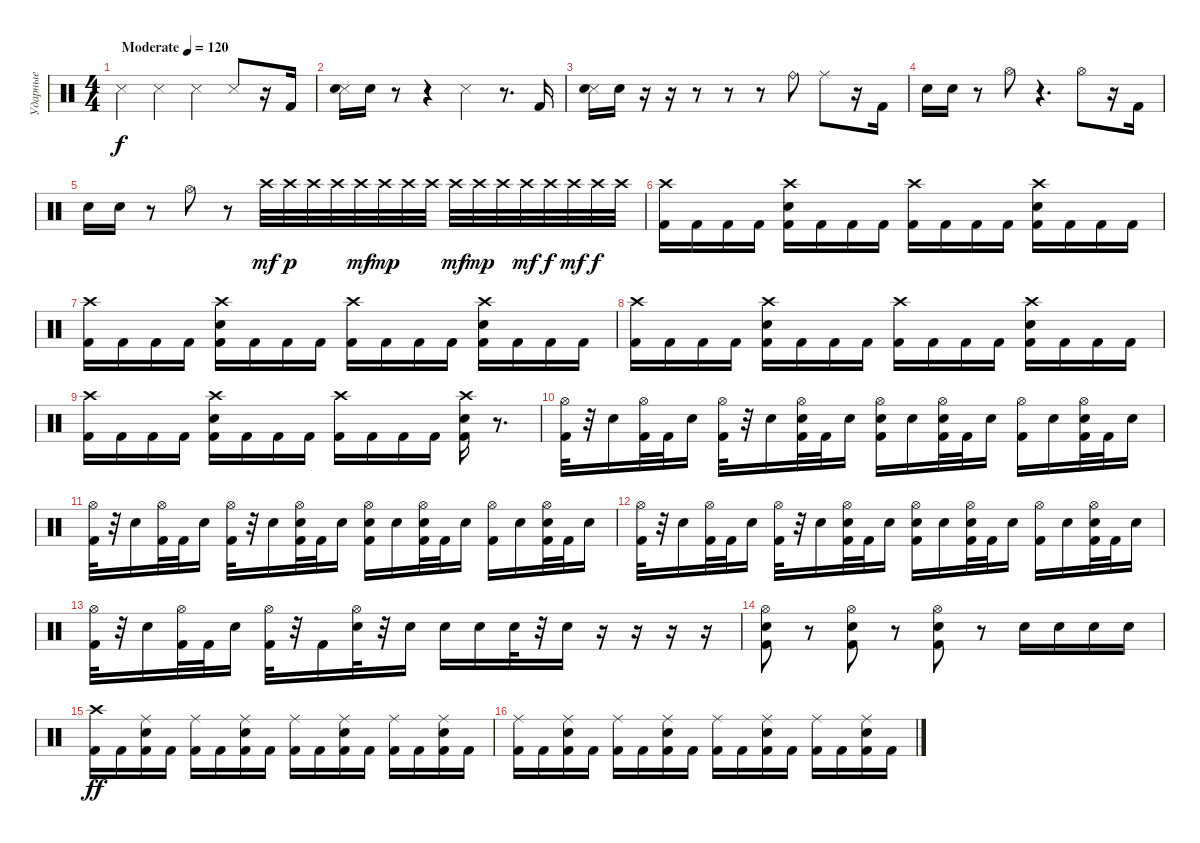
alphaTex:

\track ("Ударные" "Ударные") {instrument percussion}
\staff {score}
\articulation defaults
\ts (4 4)
\tempo (120 "Moderate")
\clef neutral
\ks c "Snare (side stick) 3".4{dy f} "Snare (side stick) 3".4 "Snare (side stick) 3".4 "Snare (side stick) 3".8
r.16 "Kick (hit) 2".16 |
("Snare (side stick) 3" "Electric Snare (hit)").16 "Electric Snare (hit)".16 r.8 r.4 "Snare (side stick) 3".4 r.8{d} "Kick (hit) 2".16 |
("Snare (side stick) 3" "Electric Snare (hit)").16 "Electric Snare (hit)".16 r.16 r.16 r.8 r.8 r.8 "Ride (bell)".8 "Ride (middle)".8 r.16 "Kick (hit) 2".16 |
"Electric Snare (hit)".16 "Electric Snare (hit)".16 r.8 "Hi-Hat (open)".8 r.4{d} "Hi-Hat (open)".8 r.16 "Kick (hit) 2".16 |
"Electric Snare (hit)".16 "Electric Snare (hit)".16 r.8 "Hi-Hat (open)".8 r.8 "Crash high (hit)".32{dy mf} "Crash high (hit)".32{dy p} "Crash high (hit)".32 "Crash high (hit)".32 "Crash high (hit)".32{dy mf} "Crash high (hit)".32{dy mp} "Crash high (hit)".32 "Crash high (hit)".32 "Crash high (hit)".32{dy mf} "Crash high (hit)".32{dy mp} "Crash high (hit)".32 "Crash high (hit)".32{dy mf} "Crash high (hit)".32{dy f} "Crash high (hit)".32{dy mf} "Crash high (hit)".32{dy f} "Crash high (hit)".32 |
("Crash high (hit)" "Kick (hit) 2").16 "Kick (hit) 2".16 "Kick (hit) 2".16 "Kick (hit) 2".16 ("Crash high (hit)" "Kick (hit) 2" "Electric Snare (hit)").16 "Kick (hit) 2".16 "Kick (hit) 2".16 "Kick (hit) 2".16 ("Crash high (hit)" "Kick (hit) 2").16 "Kick (hit) 2".16 "Kick (hit) 2".16 "Kick (hit) 2".16 ("Crash high (hit)" "Kick (hit) 2" "Electric Snare (hit)").16 "Kick (hit) 2".16 "Kick (hit) 2".16 "Kick (hit) 2".16 |
("Crash high (hit)" "Kick (hit) 2").16 "Kick (hit) 2".16 "Kick (hit) 2".16 "Kick (hit) 2".16 ("Crash high (hit)" "Kick (hit) 2" "Electric Snare (hit)").16 "Kick (hit) 2".16 "Kick (hit) 2".16 "Kick (hit) 2".16 ("Crash high (hit)" "Kick (hit) 2").16 "Kick (hit) 2".16 "Kick (hit) 2".16 "Kick (hit) 2".16 ("Crash high (hit)" "Kick (hit) 2" "Electric Snare (hit)").16 "Kick (hit) 2".16 "Kick (hit) 2".16 "Kick (hit) 2".16 |
("Crash high (hit)" "Kick (hit) 2").16 "Kick (hit) 2".16 "Kick (hit) 2".16 "Kick (hit) 2".16 ("Crash high (hit)" "Kick (hit) 2" "Electric Snare (hit)").16 "Kick (hit) 2".16 "Kick (hit) 2".16 "Kick (hit) 2".16 ("Crash high (hit)" "Kick (hit) 2").16 "Kick (hit) 2".16 "Kick (hit) 2".16 "Kick (hit) 2".16 ("Crash high (hit)" "Kick (hit) 2" "Electric Snare (hit)").16 "Kick (hit) 2".16 "Kick (hit) 2".16 "Kick (hit) 2".16 |
("Crash high (hit)" "Kick (hit) 2").16 "Kick (hit) 2".16 "Kick (hit) 2".16 "Kick (hit) 2".16 ("Crash high (hit)" "Kick (hit) 2" "Electric Snare (hit)").16 "Kick (hit) 2".16 "Kick (hit) 2".16 "Kick (hit) 2".16 ("Crash high (hit)" "Kick (hit) 2").16 "Kick (hit) 2".16 "Kick (hit) 2".16 "Kick (hit) 2".16 ("Crash high (hit)" "Kick (hit) 2" "Electric Snare (hit)").16 r.8{d} |
("Hi-Hat (open)" "Kick (hit) 2").32 r.32 "Electric Snare (hit)".16 ("Hi-Hat (open)" "Kick (hit) 2").32 "Kick (hit) 2".32 "Electric Snare (hit)".16 ("Hi-Hat (open)" "Kick (hit) 2").32 r.32 "Electric Snare (hit)".16 ("Hi-Hat (open)" "Kick (hit) 2" "Electric Snare (hit)").32 "Kick (hit) 2".32 "Electric Snare (hit)".16 ("Hi-Hat (open)" "Kick (hit) 2" "Electric Snare (hit)").16 "Electric Snare (hit)".16 ("Hi-Hat (open)" "Kick (hit) 2" "Electric Snare (hit)").32 "Kick (hit) 2".32 "Electric Snare (hit)".16 ("Hi-Hat (open)" "Kick (hit) 2").16 "Electric Snare (hit)".16 ("Hi-Hat (open)" "Kick (hit) 2" "Electric Snare (hit)").32 "Kick (hit) 2".32 "Electric Snare (hit)".16 |
("Hi-Hat (open)" "Kick (hit) 2").32 r.32 "Electric Snare (hit)".16 ("Hi-Hat (open)" "Kick (hit) 2").32 "Kick (hit) 2".32 "Electric Snare (hit)".16 ("Hi-Hat (open)" "Kick (hit) 2").32 r.32 "Electric Snare (hit)".16 ("Hi-Hat (open)" "Kick (hit) 2" "Electric Snare (hit)").32 "Kick (hit) 2".32 "Electric Snare (hit)".16 ("Hi-Hat (open)" "Kick (hit) 2" "Electric Snare (hit)").16 "Electric Snare (hit)".16 ("Hi-Hat (open)" "Kick (hit) 2" "Electric Snare (hit)").32 "Kick (hit) 2".32 "Electric Snare (hit)".16 ("Hi-Hat (open)" "Kick (hit) 2").16 "Electric Snare (hit)".16 ("Hi-Hat (open)" "Kick (hit) 2" "Electric Snare (hit)").32 "Kick (hit) 2".32 "Electric Snare (hit)".16 |
("Hi-Hat (open)" "Kick (hit) 2").32 r.32 "Electric Snare (hit)".16 ("Hi-Hat (open)" "Kick (hit) 2").32 "Kick (hit) 2".32 "Electric Snare (hit)".16 ("Hi-Hat (open)" "Kick (hit) 2").32 r.32 "Electric Snare (hit)".16 ("Hi-Hat (open)" "Kick (hit) 2" "Electric Snare (hit)").32 "Kick (hit) 2".32 "Electric Snare (hit)".16 ("Hi-Hat (open)" "Kick (hit) 2" "Electric Snare (hit)").16 "Electric Snare (hit)".16 ("Hi-Hat (open)" "Kick (hit) 2" "Electric Snare (hit)").32 "Kick (hit) 2".32 "Electric Snare (hit)".16 ("Hi-Hat (open)" "Kick (hit) 2").16 "Electric Snare (hit)".16 ("Hi-Hat (open)" "Kick (hit) 2" "Electric Snare (hit)").32 "Kick (hit) 2".32 "Electric Snare (hit)".16 |
("Hi-Hat (open)" "Kick (hit) 2").32 r.32 "Electric Snare (hit)".16 ("Hi-Hat (open)" "Kick (hit) 2").32 "Kick (hit) 2".32 "Electric Snare (hit)".16 ("Hi-Hat (open)" "Kick (hit) 2").32 r.32 "Kick (hit) 2".16 ("Hi-Hat (open)" "Electric Snare (hit)").32 r.32 "Electric Snare (hit)".16 "Electric Snare (hit)".16 "Electric Snare (hit)".16 "Electric Snare (hit)".32 r.32 "Electric Snare (hit)".16 r.16 r.16 r.16 r.16 |
("Hi-Hat (open)" "Electric Snare (hit)" "Kick (hit) 2").8 r.8 ("Hi-Hat (open)" "Electric Snare (hit)" "Kick (hit) 2").8 r.8 ("Hi-Hat (open)" "Electric Snare (hit)" "Kick (hit) 2").8 r.8 "Electric Snare (hit)".16 "Electric Snare (hit)".16 "Electric Snare (hit)".16 "Electric Snare (hit)".16 |
("Crash high (hit)" "Kick (hit) 2").16{dy ff} "Kick (hit) 2".16 ("Ride (middle)" "Kick (hit) 2" "Electric Snare (hit)").16 "Kick (hit) 2".16 ("Ride (middle)" "Kick (hit) 2").16 "Kick (hit) 2".16 ("Ride (middle)" "Kick (hit) 2" "Electric Snare (hit)").16 "Kick (hit) 2".16 ("Ride (middle)" "Kick (hit) 2").16 "Kick (hit) 2".16 ("Ride (middle)" "Kick (hit) 2" "Electric Snare (hit)").16 "Kick (hit) 2".16 ("Ride (middle)" "Kick (hit) 2").16 "Kick (hit) 2".16 ("Ride (middle)" "Kick (hit) 2" "Electric Snare (hit)").16 "Kick (hit) 2".16 |
("Ride (middle)" "Kick (hit) 2").16 "Kick (hit) 2".16 ("Ride (middle)" "Kick (hit) 2" "Electric Snare (hit)").16 "Kick (hit) 2".16 ("Ride (middle)" "Kick (hit) 2").16 "Kick (hit) 2".16 ("Ride (middle)" "Kick (hit) 2" "Electric Snare (hit)").16 "Kick (hit) 2".16 ("Ride (middle)" "Kick (hit) 2").16 "Kick (hit) 2".16 ("Ride (middle)" "Kick (hit) 2" "Electric Snare (hit)").16 "Kick (hit) 2".16 ("Ride (middle)" "Kick (hit) 2").16 "Kick (hit) 2".16 ("Ride (middle)" "Kick (hit) 2" "Electric Snare (hit)").16 "Kick (hit) 2".16
